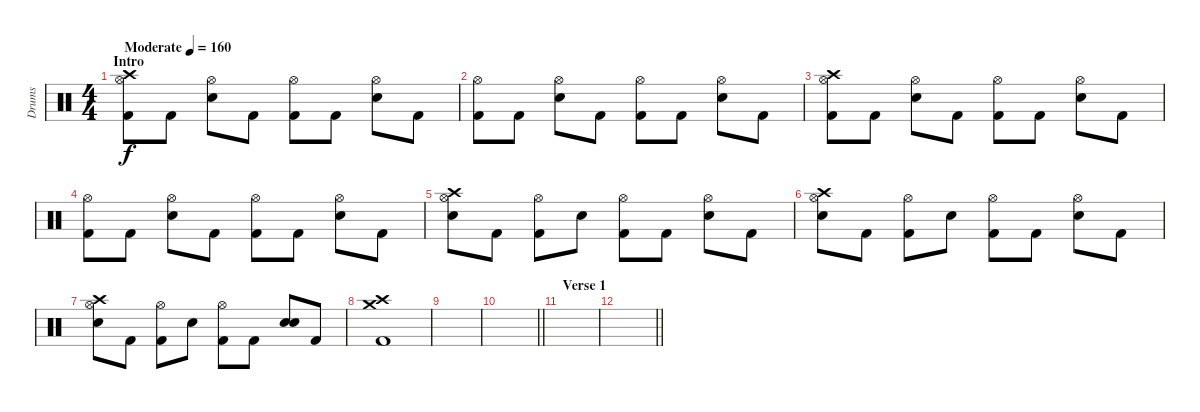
\track ("Drums" "Drums") {instrument percussion}
\staff {score}
\articulation defaults
\ts (4 4)
\section ("" "Intro")
\tempo (160 "Moderate")
\clef neutral
\ks c
("Crash high (hit)" "Hi-Hat (open)" "Kick (hit) 2").8{dy f} "Kick (hit) 2".8 ("Hi-Hat (open)" "Electric Snare (hit)").8 "Kick (hit) 2".8 ("Hi-Hat (open)" "Kick (hit) 2").8 "Kick (hit) 2".8 ("Hi-Hat (open)" "Electric Snare (hit)").8 "Kick (hit) 2".8 |
("Hi-Hat (open)" "Kick (hit) 2").8 "Kick (hit) 2".8 ("Hi-Hat (open)" "Electric Snare (hit)").8 "Kick (hit) 2".8 ("Hi-Hat (open)" "Kick (hit) 2").8 "Kick (hit) 2".8 ("Hi-Hat (open)" "Electric Snare (hit)").8 "Kick (hit) 2".8 |
("Crash high (hit)" "Hi-Hat (open)" "Kick (hit) 2").8 "Kick (hit) 2".8 ("Hi-Hat (open)" "Electric Snare (hit)").8 "Kick (hit) 2".8 ("Hi-Hat (open)" "Kick (hit) 2").8 "Kick (hit) 2".8 ("Hi-Hat (open)" "Electric Snare (hit)").8 "Kick (hit) 2".8 |
("Hi-Hat (open)" "Kick (hit) 2").8 "Kick (hit) 2".8 ("Hi-Hat (open)" "Electric Snare (hit)").8 "Kick (hit) 2".8 ("Hi-Hat (open)" "Kick (hit) 2").8 "Kick (hit) 2".8 ("Hi-Hat (open)" "Electric Snare (hit)").8 "Kick (hit) 2".8 |
("Crash high (hit)" "Hi-Hat (open)" "Electric Snare (hit)").8 "Kick (hit) 2".8 ("Hi-Hat (open)" "Kick (hit) 2").8 "Electric Snare (hit)".8 ("Hi-Hat (open)" "Kick (hit) 2").8 "Kick (hit) 2".8 ("Hi-Hat (open)" "Electric Snare (hit)").8 "Kick (hit) 2".8 |
("Crash high (hit)" "Hi-Hat (open)" "Electric Snare (hit)").8 "Kick (hit) 2".8 ("Hi-Hat (open)" "Kick (hit) 2").8 "Electric Snare (hit)".8 ("Hi-Hat (open)" "Kick (hit) 2").8 "Kick (hit) 2".8 ("Hi-Hat (open)" "Electric Snare (hit)").8 "Kick (hit) 2".8 |
("Crash high (hit)" "Hi-Hat (open)" "Electric Snare (hit)").8 "Kick (hit) 2".8 ("Hi-Hat (open)" "Kick (hit) 2").8 "Electric Snare (hit)".8 ("Hi-Hat (open)" "Kick (hit) 2").8 "Kick (hit) 2".8 ("Electric Snare (hit)" "Electric Snare (hit)").8{bu 480} "Kick (hit) 2".8 |
("Crash high (hit)" "Crash medium (hit)" "Kick (hit) 2").1 |
|
\barLineRight lightlight
|
\section ("" "Verse 1")
|
\barLineRight lightlight
